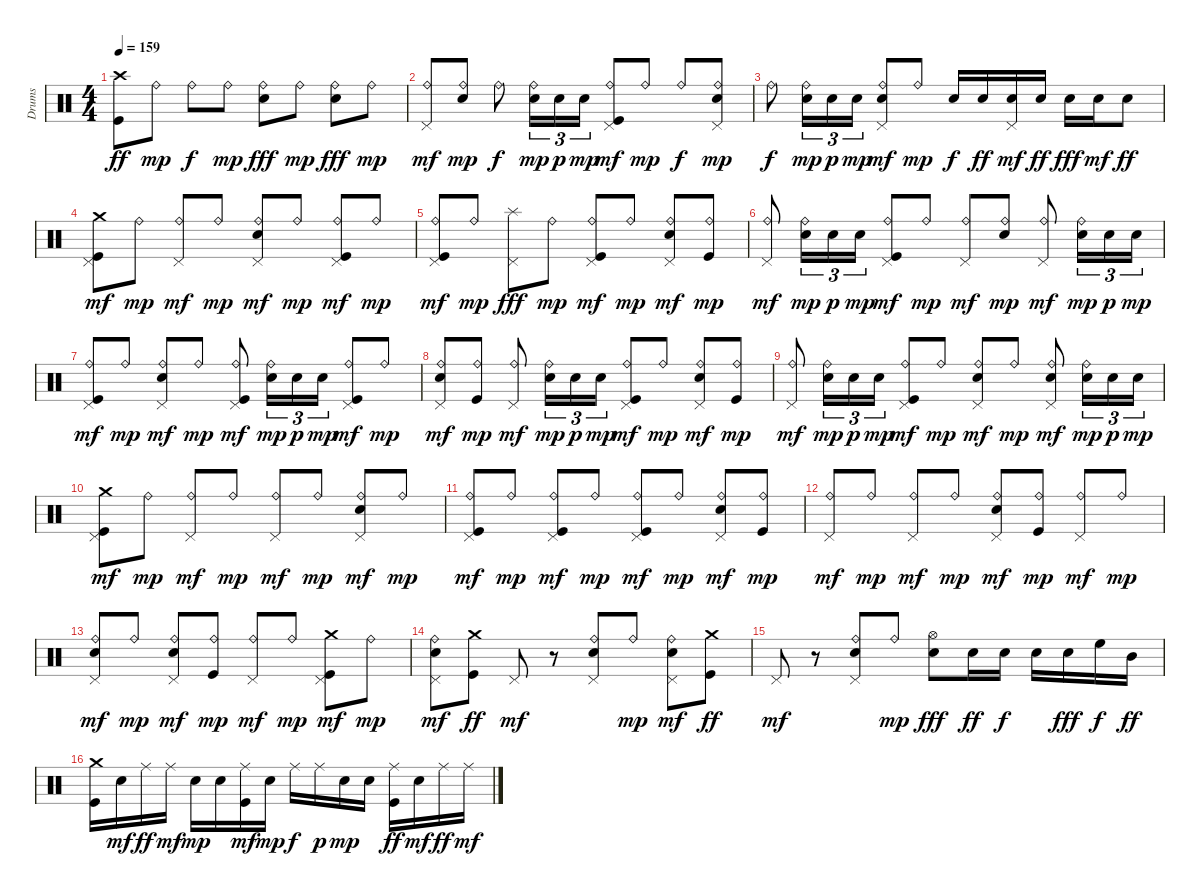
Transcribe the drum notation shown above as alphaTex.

\track ("Drums" "Drums") {instrument percussion}
\staff {score}
\articulation defaults
\ts (4 4)
\tempo 159
\clef neutral
\ks c
("Kick (hit)" "Crash high (hit)").8{dy ff} "Ride (bell)".8{dy mp} "Ride (bell)".8{dy f} "Ride (bell)".8{dy mp} ("Electric Snare (hit)" "Ride (bell)").8{dy fff} "Ride (bell)".8{dy mp} ("Electric Snare (hit)" "Ride (bell)").8{dy fff} "Ride (bell)".8{dy mp} |
("Pedal Hi-Hat (hit)" "Ride (bell)").8{dy mf} ("Electric Snare (hit)" "Ride (bell)").8{dy mp} "Ride (bell)".8{dy f} ("Snare (hit) 2" "Ride (bell)").16{tu (3 2) dy mp} "Snare (hit) 2".16{tu (3 2) dy p} "Snare (hit) 2".16{tu (3 2) dy mp} ("Kick (hit)" "Pedal Hi-Hat (hit)" "Ride (bell)").8{dy mf} "Ride (bell)".8{dy mp} "Ride (bell)".8{dy f} ("Electric Snare (hit)" "Pedal Hi-Hat (hit)" "Ride (bell)").8{dy mp} |
"Ride (bell)".8{dy f} ("Snare (hit) 2" "Ride (bell)").16{tu (3 2) dy mp} "Snare (hit) 2".16{tu (3 2) dy p} "Snare (hit) 2".16{tu (3 2) dy mp} ("Electric Snare (hit)" "Pedal Hi-Hat (hit)" "Ride (bell)").8{dy mf} "Ride (bell)".8{dy mp} "Electric Snare (hit)".16{dy f} "Electric Snare (hit)".16{dy ff} ("Electric Snare (hit)" "Pedal Hi-Hat (hit)").16{dy mf} "Electric Snare (hit)".16{dy ff} "Electric Snare (hit)".16{dy fff} "Snare (hit) 2".16{dy mf} "Electric Snare (hit)".8{dy ff} |
("Kick (hit)" "Pedal Hi-Hat (hit)" "Crash medium (hit)").8{dy mf} "Ride (bell)".8{dy mp} ("Pedal Hi-Hat (hit)" "Ride (bell)").8{dy mf} "Ride (bell)".8{dy mp} ("Electric Snare (hit)" "Pedal Hi-Hat (hit)" "Ride (bell)").8{dy mf} "Ride (bell)".8{dy mp} ("Kick (hit)" "Pedal Hi-Hat (hit)" "Ride (bell)").8{dy mf} "Ride (bell)".8{dy mp} |
("Kick (hit)" "Pedal Hi-Hat (hit)" "Ride (bell)").8{dy mf} "Ride (bell)".8{dy mp} ("Pedal Hi-Hat (hit)" "Splash (hit)").8{dy fff} "Ride (bell)".8{dy mp} ("Kick (hit)" "Pedal Hi-Hat (hit)" "Ride (bell)").8{dy mf} "Ride (bell)".8{dy mp} ("Electric Snare (hit)" "Pedal Hi-Hat (hit)" "Ride (bell)").8{dy mf} ("Kick (hit)" "Ride (bell)").8{dy mp} |
("Pedal Hi-Hat (hit)" "Ride (bell)").8{dy mf} ("Snare (hit) 2" "Ride (bell)").16{tu (3 2) dy mp} "Snare (hit) 2".16{tu (3 2) dy p} "Snare (hit) 2".16{tu (3 2) dy mp} ("Kick (hit)" "Pedal Hi-Hat (hit)" "Ride (bell)").8{dy mf} "Ride (bell)".8{dy mp} ("Pedal Hi-Hat (hit)" "Ride (bell)").8{dy mf} ("Electric Snare (hit)" "Ride (bell)").8{dy mp} ("Pedal Hi-Hat (hit)" "Ride (bell)").8{dy mf} ("Snare (hit) 2" "Ride (bell)").16{tu (3 2) dy mp} "Snare (hit) 2".16{tu (3 2) dy p} "Snare (hit) 2".16{tu (3 2) dy mp} |
("Kick (hit)" "Pedal Hi-Hat (hit)" "Ride (bell)").8{dy mf} "Ride (bell)".8{dy mp} ("Electric Snare (hit)" "Pedal Hi-Hat (hit)" "Ride (bell)").8{dy mf} "Ride (bell)".8{dy mp} ("Kick (hit)" "Pedal Hi-Hat (hit)" "Ride (bell)").8{dy mf} ("Snare (hit) 2" "Ride (bell)").16{tu (3 2) dy mp} "Snare (hit) 2".16{tu (3 2) dy p} "Snare (hit) 2".16{tu (3 2) dy mp} ("Kick (hit)" "Pedal Hi-Hat (hit)" "Ride (bell)").8{dy mf} "Ride (bell)".8{dy mp} |
("Electric Snare (hit)" "Pedal Hi-Hat (hit)" "Ride (bell)").8{dy mf} ("Kick (hit)" "Ride (bell)").8{dy mp} ("Pedal Hi-Hat (hit)" "Ride (bell)").8{dy mf} ("Snare (hit) 2" "Ride (bell)").16{tu (3 2) dy mp} "Snare (hit) 2".16{tu (3 2) dy p} "Snare (hit) 2".16{tu (3 2) dy mp} ("Kick (hit)" "Pedal Hi-Hat (hit)" "Ride (bell)").8{dy mf} "Ride (bell)".8{dy mp} ("Electric Snare (hit)" "Pedal Hi-Hat (hit)" "Ride (bell)").8{dy mf} ("Kick (hit)" "Ride (bell)").8{dy mp} |
("Pedal Hi-Hat (hit)" "Ride (bell)").8{dy mf} ("Snare (hit) 2" "Ride (bell)").16{tu (3 2) dy mp} "Snare (hit) 2".16{tu (3 2) dy p} "Snare (hit) 2".16{tu (3 2) dy mp} ("Kick (hit)" "Pedal Hi-Hat (hit)" "Ride (bell)").8{dy mf} "Ride (bell)".8{dy mp} ("Electric Snare (hit)" "Pedal Hi-Hat (hit)" "Ride (bell)").8{dy mf} "Ride (bell)".8{dy mp} ("Electric Snare (hit)" "Pedal Hi-Hat (hit)" "Ride (bell)").8{dy mf} ("Snare (hit) 2" "Ride (bell)").16{tu (3 2) dy mp} "Snare (hit) 2".16{tu (3 2) dy p} "Snare (hit) 2".16{tu (3 2) dy mp} |
("Kick (hit)" "Pedal Hi-Hat (hit)" "Crash medium (hit)").8{dy mf} "Ride (bell)".8{dy mp} ("Pedal Hi-Hat (hit)" "Ride (bell)").8{dy mf} "Ride (bell)".8{dy mp} ("Pedal Hi-Hat (hit)" "Ride (bell)").8{dy mf} "Ride (bell)".8{dy mp} ("Electric Snare (hit)" "Pedal Hi-Hat (hit)" "Ride (bell)").8{dy mf} "Ride (bell)".8{dy mp} |
("Kick (hit)" "Pedal Hi-Hat (hit)" "Ride (bell)").8{dy mf} "Ride (bell)".8{dy mp} ("Kick (hit)" "Pedal Hi-Hat (hit)" "Ride (bell)").8{dy mf} "Ride (bell)".8{dy mp} ("Kick (hit)" "Pedal Hi-Hat (hit)" "Ride (bell)").8{dy mf} "Ride (bell)".8{dy mp} ("Electric Snare (hit)" "Pedal Hi-Hat (hit)" "Ride (bell)").8{dy mf} ("Kick (hit)" "Ride (bell)").8{dy mp} |
("Pedal Hi-Hat (hit)" "Ride (bell)").8{dy mf} "Ride (bell)".8{dy mp} ("Pedal Hi-Hat (hit)" "Ride (bell)").8{dy mf} "Ride (bell)".8{dy mp} ("Electric Snare (hit)" "Pedal Hi-Hat (hit)" "Ride (bell)").8{dy mf} ("Kick (hit)" "Ride (bell)").8{dy mp} ("Pedal Hi-Hat (hit)" "Ride (bell)").8{dy mf} "Ride (bell)".8{dy mp} |
("Electric Snare (hit)" "Pedal Hi-Hat (hit)" "Ride (bell)").8{dy mf} "Ride (bell)".8{dy mp} ("Electric Snare (hit)" "Pedal Hi-Hat (hit)" "Ride (bell)").8{dy mf} ("Kick (hit)" "Ride (bell)").8{dy mp} ("Pedal Hi-Hat (hit)" "Ride (bell)").8{dy mf} "Ride (bell)".8{dy mp} ("Kick (hit)" "Pedal Hi-Hat (hit)" "Crash medium (hit)").8{dy mf} "Ride (bell)".8{dy mp} |
("Electric Snare (hit)" "Pedal Hi-Hat (hit)" "Ride (bell)").8{dy mf} ("Kick (hit)" "Crash medium (hit)").8{dy ff} "Pedal Hi-Hat (hit)".8{dy mf} r.8 ("Electric Snare (hit)" "Pedal Hi-Hat (hit)" "Ride (bell)").8 "Ride (bell)".8{dy mp} ("Electric Snare (hit)" "Pedal Hi-Hat (hit)" "Ride (bell)").8{dy mf} ("Kick (hit)" "Crash medium (hit)").8{dy ff} |
"Pedal Hi-Hat (hit)".8{dy mf} r.8 ("Electric Snare (hit)" "Pedal Hi-Hat (hit)" "Ride (bell)").8 "Ride (bell)".8{dy mp} ("Electric Snare (hit)" "Hi-Hat (open)").8{dy fff} "Electric Snare (hit)".16{dy ff} "Electric Snare (hit)".16{dy f} "Electric Snare (hit)".16 "Electric Snare (hit)".16{dy fff} "High Floor Tom (hit)".16{dy f} "Mid Tom (hit)".16{dy ff} |
("Kick (hit)" "Crash medium (hit)").16 "Snare (hit) 2".16{dy mf} "Ride (middle)".16{dy ff} "Ride (middle)".16{dy mf} "Snare (hit) 2".16{dy mp} "Snare (hit) 2".16 ("Kick (hit)" "Ride (middle)").16{dy mf} "Snare (hit) 2".16{dy mp} "Ride (middle)".16{dy f} "Ride (middle)".16{dy p} "Snare (hit) 2".16{dy mp} "Snare (hit) 2".16 ("Kick (hit)" "Ride (middle)").16{dy ff} "Snare (hit) 2".16{dy mf} "Ride (middle)".16{dy ff} "Ride (middle)".16{dy mf}
